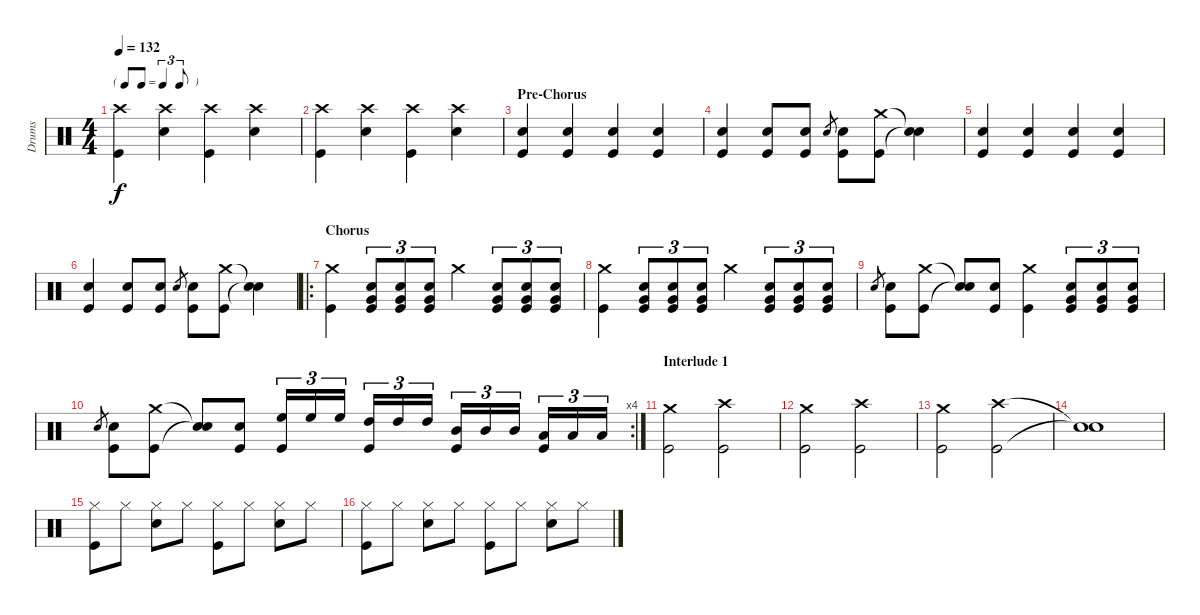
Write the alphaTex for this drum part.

\track ("Drums" "Drums") {instrument percussion}
\staff {score}
\articulation defaults
\ts (4 4)
\tf triplet8th
\tempo 132
\clef neutral
\ks c
("Crash high (hit)" "Kick (hit)").4{dy f} ("Crash high (hit)" "Snare (hit) 2").4 ("Crash high (hit)" "Kick (hit)").4 ("Crash high (hit)" "Snare (hit) 2").4 |
("Crash high (hit)" "Kick (hit)").4 ("Crash high (hit)" "Snare (hit) 2").4 ("Crash high (hit)" "Kick (hit)").4 ("Crash high (hit)" "Snare (hit) 2").4 |
\section ("" "Pre-Chorus")
("Snare (hit) 2" "Kick (hit)").4 ("Snare (hit) 2" "Kick (hit)").4 ("Snare (hit) 2" "Kick (hit)").4 ("Snare (hit) 2" "Kick (hit)").4 |
("Snare (hit) 2" "Kick (hit)").4 ("Snare (hit) 2" "Kick (hit)").8 ("Snare (hit) 2" "Kick (hit)").8 "Snare (hit) 2".8{gr} ("Snare (hit) 2" "Kick (hit)").8 ("Crash medium (hit)" "Kick (hit)").8 ("Snare (hit)"{t} "Snare (hit)"{t}).4 |
("Snare (hit) 2" "Kick (hit)").4 ("Snare (hit) 2" "Kick (hit)").4 ("Snare (hit) 2" "Kick (hit)").4 ("Snare (hit) 2" "Kick (hit)").4 |
("Snare (hit) 2" "Kick (hit)").4 ("Snare (hit) 2" "Kick (hit)").8 ("Snare (hit) 2" "Kick (hit)").8 "Snare (hit) 2".8{gr} ("Snare (hit) 2" "Kick (hit)").8 ("Crash medium (hit)" "Kick (hit)").8 ("Snare (hit)"{t} "Snare (hit)"{t}).4 |
\ro
\section ("" "Chorus")
("Crash medium (hit)" "Kick (hit)").4 ("Very Low Tom (hit)" "Snare (hit) 2" "Kick (hit)").8{tu (3 2)} ("Very Low Tom (hit)" "Snare (hit) 2" "Kick (hit)").8{tu (3 2)} ("Very Low Tom (hit)" "Snare (hit) 2" "Kick (hit)").8{tu (3 2)} "Crash medium (hit)".4 ("Very Low Tom (hit)" "Snare (hit) 2" "Kick (hit)").8{tu (3 2)} ("Very Low Tom (hit)" "Snare (hit) 2" "Kick (hit)").8{tu (3 2)} ("Very Low Tom (hit)" "Snare (hit) 2" "Kick (hit)").8{tu (3 2)} |
("Crash medium (hit)" "Kick (hit)").4 ("Very Low Tom (hit)" "Snare (hit) 2" "Kick (hit)").8{tu (3 2)} ("Very Low Tom (hit)" "Snare (hit) 2" "Kick (hit)").8{tu (3 2)} ("Very Low Tom (hit)" "Snare (hit) 2" "Kick (hit)").8{tu (3 2)} "Crash medium (hit)".4 ("Very Low Tom (hit)" "Snare (hit) 2" "Kick (hit)").8{tu (3 2)} ("Very Low Tom (hit)" "Snare (hit) 2" "Kick (hit)").8{tu (3 2)} ("Very Low Tom (hit)" "Snare (hit) 2" "Kick (hit)").8{tu (3 2)} |
"Snare (hit) 2".8{gr} ("Snare (hit) 2" "Kick (hit)").8 ("Crash medium (hit)" "Kick (hit)").8 ("Snare (hit)"{t} "Snare (hit)"{t}).8 ("Snare (hit) 2" "Kick (hit)").8 ("Crash medium (hit)" "Kick (hit)").4 ("Very Low Tom (hit)" "Snare (hit) 2" "Kick (hit)").8{tu (3 2)} ("Very Low Tom (hit)" "Snare (hit) 2" "Kick (hit)").8{tu (3 2)} ("Very Low Tom (hit)" "Snare (hit) 2" "Kick (hit)").8{tu (3 2)} |
\rc 4 "Snare (hit) 2".8{gr}
("Snare (hit) 2" "Kick (hit)").8 ("Crash medium (hit)" "Kick (hit)").8 ("Snare (hit)"{t} "Snare (hit)"{t}).8 ("Snare (hit) 2" "Kick (hit)").8 ("High Floor Tom (hit)" "Kick (hit)").16{tu (3 2)} "High Floor Tom (hit)".16{tu (3 2)} "High Floor Tom (hit)".16{tu (3 2)} ("High Tom (hit)" "Kick (hit)").16{tu (3 2)} "High Tom (hit)".16{tu (3 2)} "High Tom (hit)".16{tu (3 2)} ("Mid Tom (hit)" "Kick (hit)").16{tu (3 2)} "Mid Tom (hit)".16{tu (3 2)} "Mid Tom (hit)".16{tu (3 2)} ("Low Tom (hit)" "Kick (hit)").16{tu (3 2)} "Low Tom (hit)".16{tu (3 2)} "Low Tom (hit)".16{tu (3 2)} |
\section ("" "Interlude 1")
("Crash medium (hit)" "Kick (hit)").2 ("Crash high (hit)" "Kick (hit)").2 |
("Crash medium (hit)" "Kick (hit)").2 ("Crash high (hit)" "Kick (hit)").2 |
("Crash medium (hit)" "Kick (hit)").2 ("Crash high (hit)" "Kick (hit)").2 |
("Snare (hit)"{t} "Snare (hit)"{t}).1 |
("Hi-Hat (closed)" "Kick (hit)").8 "Hi-Hat (closed)".8 ("Hi-Hat (closed)" "Snare (hit) 2").8 "Hi-Hat (closed)".8 ("Hi-Hat (closed)" "Kick (hit)").8 "Hi-Hat (closed)".8 ("Hi-Hat (closed)" "Snare (hit) 2").8 "Hi-Hat (closed)".8 |
("Hi-Hat (closed)" "Kick (hit)").8 "Hi-Hat (closed)".8 ("Hi-Hat (closed)" "Snare (hit) 2").8 "Hi-Hat (closed)".8 ("Hi-Hat (closed)" "Kick (hit)").8 "Hi-Hat (closed)".8 ("Hi-Hat (closed)" "Snare (hit) 2").8 "Hi-Hat (closed)".8
